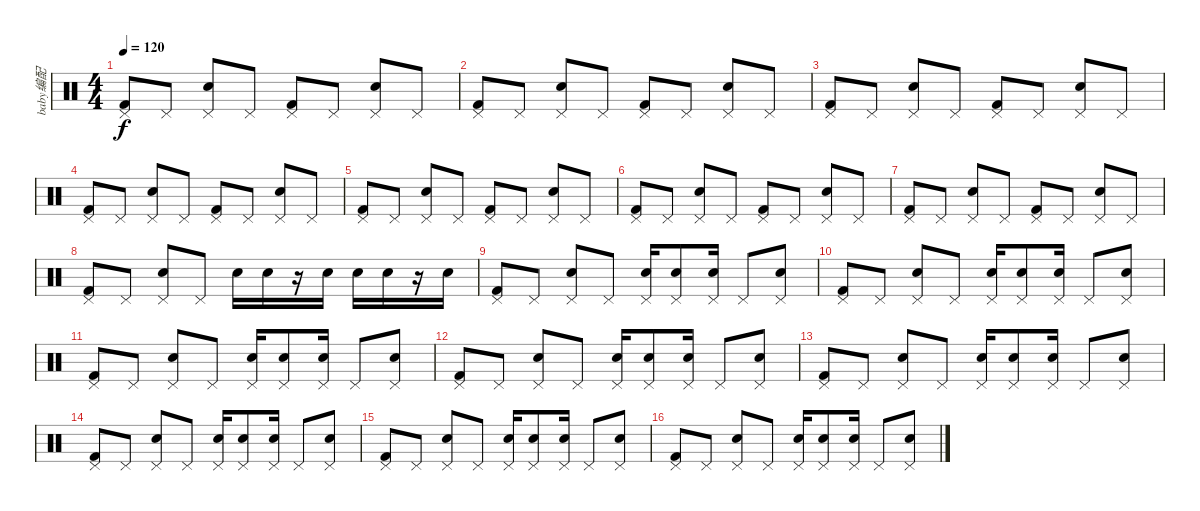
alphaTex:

\track ("baby编配" "baby编配") {instrument percussion}
\staff {score}
\articulation defaults
\ts (4 4)
\tempo 120
\clef neutral
\ks c
("Kick (hit) 2" "Pedal Hi-Hat (hit)").8{dy f} "Pedal Hi-Hat (hit)".8 ("Snare (hit) 2" "Pedal Hi-Hat (hit)").8 "Pedal Hi-Hat (hit)".8 ("Kick (hit) 2" "Pedal Hi-Hat (hit)").8 "Pedal Hi-Hat (hit)".8 ("Snare (hit) 2" "Pedal Hi-Hat (hit)").8 "Pedal Hi-Hat (hit)".8 |
("Kick (hit) 2" "Pedal Hi-Hat (hit)").8 "Pedal Hi-Hat (hit)".8 ("Snare (hit) 2" "Pedal Hi-Hat (hit)").8 "Pedal Hi-Hat (hit)".8 ("Kick (hit) 2" "Pedal Hi-Hat (hit)").8 "Pedal Hi-Hat (hit)".8 ("Snare (hit) 2" "Pedal Hi-Hat (hit)").8 "Pedal Hi-Hat (hit)".8 |
("Kick (hit) 2" "Pedal Hi-Hat (hit)").8 "Pedal Hi-Hat (hit)".8 ("Snare (hit) 2" "Pedal Hi-Hat (hit)").8 "Pedal Hi-Hat (hit)".8 ("Kick (hit) 2" "Pedal Hi-Hat (hit)").8 "Pedal Hi-Hat (hit)".8 ("Snare (hit) 2" "Pedal Hi-Hat (hit)").8 "Pedal Hi-Hat (hit)".8 |
("Kick (hit) 2" "Pedal Hi-Hat (hit)").8 "Pedal Hi-Hat (hit)".8 ("Snare (hit) 2" "Pedal Hi-Hat (hit)").8 "Pedal Hi-Hat (hit)".8 ("Kick (hit) 2" "Pedal Hi-Hat (hit)").8 "Pedal Hi-Hat (hit)".8 ("Snare (hit) 2" "Pedal Hi-Hat (hit)").8 "Pedal Hi-Hat (hit)".8 |
("Kick (hit) 2" "Pedal Hi-Hat (hit)").8 "Pedal Hi-Hat (hit)".8 ("Snare (hit) 2" "Pedal Hi-Hat (hit)").8 "Pedal Hi-Hat (hit)".8 ("Kick (hit) 2" "Pedal Hi-Hat (hit)").8 "Pedal Hi-Hat (hit)".8 ("Snare (hit) 2" "Pedal Hi-Hat (hit)").8 "Pedal Hi-Hat (hit)".8 |
("Kick (hit) 2" "Pedal Hi-Hat (hit)").8 "Pedal Hi-Hat (hit)".8 ("Snare (hit) 2" "Pedal Hi-Hat (hit)").8 "Pedal Hi-Hat (hit)".8 ("Kick (hit) 2" "Pedal Hi-Hat (hit)").8 "Pedal Hi-Hat (hit)".8 ("Snare (hit) 2" "Pedal Hi-Hat (hit)").8 "Pedal Hi-Hat (hit)".8 |
("Kick (hit) 2" "Pedal Hi-Hat (hit)").8 "Pedal Hi-Hat (hit)".8 ("Snare (hit) 2" "Pedal Hi-Hat (hit)").8 "Pedal Hi-Hat (hit)".8 ("Kick (hit) 2" "Pedal Hi-Hat (hit)").8 "Pedal Hi-Hat (hit)".8 ("Snare (hit) 2" "Pedal Hi-Hat (hit)").8 "Pedal Hi-Hat (hit)".8 |
("Kick (hit) 2" "Pedal Hi-Hat (hit)").8 "Pedal Hi-Hat (hit)".8 ("Snare (hit) 2" "Pedal Hi-Hat (hit)").8 "Pedal Hi-Hat (hit)".8 "Snare (hit) 2".16 "Snare (hit) 2".16 r.16 "Snare (hit) 2".16 "Snare (hit) 2".16 "Snare (hit) 2".16 r.16 "Snare (hit) 2".16 |
("Pedal Hi-Hat (hit)" "Kick (hit) 2").8 "Pedal Hi-Hat (hit)".8 ("Pedal Hi-Hat (hit)" "Snare (hit) 2").8 "Pedal Hi-Hat (hit)".8 ("Pedal Hi-Hat (hit)" "Snare (hit) 2").16 ("Pedal Hi-Hat (hit)" "Snare (hit) 2").8 ("Pedal Hi-Hat (hit)" "Snare (hit) 2").16 "Pedal Hi-Hat (hit)".8 ("Pedal Hi-Hat (hit)" "Snare (hit) 2").8 |
("Pedal Hi-Hat (hit)" "Kick (hit) 2").8 "Pedal Hi-Hat (hit)".8 ("Pedal Hi-Hat (hit)" "Snare (hit) 2").8 "Pedal Hi-Hat (hit)".8 ("Pedal Hi-Hat (hit)" "Snare (hit) 2").16 ("Pedal Hi-Hat (hit)" "Snare (hit) 2").8 ("Pedal Hi-Hat (hit)" "Snare (hit) 2").16 "Pedal Hi-Hat (hit)".8 ("Pedal Hi-Hat (hit)" "Snare (hit) 2").8 |
("Pedal Hi-Hat (hit)" "Kick (hit) 2").8 "Pedal Hi-Hat (hit)".8 ("Pedal Hi-Hat (hit)" "Snare (hit) 2").8 "Pedal Hi-Hat (hit)".8 ("Pedal Hi-Hat (hit)" "Snare (hit) 2").16 ("Pedal Hi-Hat (hit)" "Snare (hit) 2").8 ("Pedal Hi-Hat (hit)" "Snare (hit) 2").16 "Pedal Hi-Hat (hit)".8 ("Pedal Hi-Hat (hit)" "Snare (hit) 2").8 |
("Pedal Hi-Hat (hit)" "Kick (hit) 2").8 "Pedal Hi-Hat (hit)".8 ("Pedal Hi-Hat (hit)" "Snare (hit) 2").8 "Pedal Hi-Hat (hit)".8 ("Pedal Hi-Hat (hit)" "Snare (hit) 2").16 ("Pedal Hi-Hat (hit)" "Snare (hit) 2").8 ("Pedal Hi-Hat (hit)" "Snare (hit) 2").16 "Pedal Hi-Hat (hit)".8 ("Pedal Hi-Hat (hit)" "Snare (hit) 2").8 |
("Pedal Hi-Hat (hit)" "Kick (hit) 2").8 "Pedal Hi-Hat (hit)".8 ("Pedal Hi-Hat (hit)" "Snare (hit) 2").8 "Pedal Hi-Hat (hit)".8 ("Pedal Hi-Hat (hit)" "Snare (hit) 2").16 ("Pedal Hi-Hat (hit)" "Snare (hit) 2").8 ("Pedal Hi-Hat (hit)" "Snare (hit) 2").16 "Pedal Hi-Hat (hit)".8 ("Pedal Hi-Hat (hit)" "Snare (hit) 2").8 |
("Pedal Hi-Hat (hit)" "Kick (hit) 2").8 "Pedal Hi-Hat (hit)".8 ("Pedal Hi-Hat (hit)" "Snare (hit) 2").8 "Pedal Hi-Hat (hit)".8 ("Pedal Hi-Hat (hit)" "Snare (hit) 2").16 ("Pedal Hi-Hat (hit)" "Snare (hit) 2").8 ("Pedal Hi-Hat (hit)" "Snare (hit) 2").16 "Pedal Hi-Hat (hit)".8 ("Pedal Hi-Hat (hit)" "Snare (hit) 2").8 |
("Pedal Hi-Hat (hit)" "Kick (hit) 2").8 "Pedal Hi-Hat (hit)".8 ("Pedal Hi-Hat (hit)" "Snare (hit) 2").8 "Pedal Hi-Hat (hit)".8 ("Pedal Hi-Hat (hit)" "Snare (hit) 2").16 ("Pedal Hi-Hat (hit)" "Snare (hit) 2").8 ("Pedal Hi-Hat (hit)" "Snare (hit) 2").16 "Pedal Hi-Hat (hit)".8 ("Pedal Hi-Hat (hit)" "Snare (hit) 2").8 |
("Pedal Hi-Hat (hit)" "Kick (hit) 2").8 "Pedal Hi-Hat (hit)".8 ("Pedal Hi-Hat (hit)" "Snare (hit) 2").8 "Pedal Hi-Hat (hit)".8 ("Pedal Hi-Hat (hit)" "Snare (hit) 2").16 ("Pedal Hi-Hat (hit)" "Snare (hit) 2").8 ("Pedal Hi-Hat (hit)" "Snare (hit) 2").16 "Pedal Hi-Hat (hit)".8 ("Pedal Hi-Hat (hit)" "Snare (hit) 2").8
